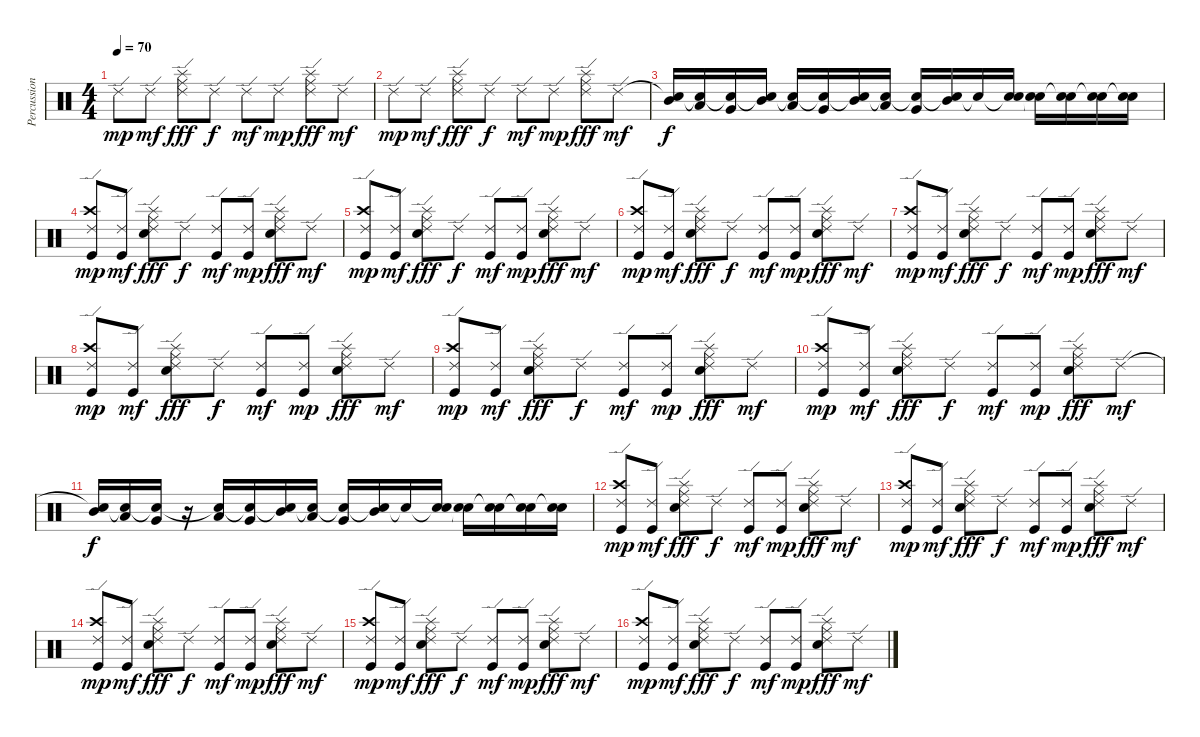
\track ("Percussions" "Percussion") {instrument percussion}
\staff {score}
\articulation defaults
\ts (4 4)
\tempo 70
\clef neutral
\ks c "Ride (edge) 2".8{dy mp} "Ride (edge) 2".8{dy mf}
("Ride (middle)" "Ride (edge) 2" "Splash (hit)").8{dy fff} "Ride (edge) 2".8{dy f} "Ride (edge) 2".8{dy mf} "Ride (edge) 2".8{dy mp} ("Ride (middle)" "Ride (edge) 2" "Splash (hit)").8{dy fff} "Ride (edge) 2".8{dy mf} |
"Ride (edge) 2".8{dy mp} "Ride (edge) 2".8{dy mf} ("Ride (middle)" "Ride (edge) 2" "Splash (hit)").8{dy fff} "Ride (edge) 2".8{dy f} "Ride (edge) 2".8{dy mf} "Ride (edge) 2".8{dy mp} ("Ride (middle)" "Ride (edge) 2" "Splash (hit)").8{dy fff} "Ride (edge) 2".8{dy mf} |
("Snare (hit)"{t} "Mid Tom (hit)").16{dy f} ("Snare (hit)"{t} "Low Tom (hit)").16 ("Snare (hit)"{t} "Very Low Tom (hit)").16 ("Snare (hit)"{t} "Mid Tom (hit)").16 ("Snare (hit)"{t} "Low Tom (hit)").16 ("Snare (hit)"{t} "Very Low Tom (hit)").16 ("Snare (hit)"{t} "Mid Tom (hit)").16 ("Snare (hit)"{t} "Low Tom (hit)").16 ("Snare (hit)"{t} "Very Low Tom (hit)").16 ("Snare (hit)"{t} "Mid Tom (hit)").16 "Snare (hit)"{t}.16 ("Snare (hit)"{t} "Electric Snare (hit)").16 ("Snare (hit)"{t} "Electric Snare (hit)").16 ("Snare (hit)"{t} "Electric Snare (hit)").16 ("Snare (hit)"{t} "Electric Snare (hit)").16 ("Snare (hit)"{t} "Electric Snare (hit)").16 |
("Ride (edge) 2" "Crash high (hit)" "Kick (hit)").8{dy mp} ("Ride (edge) 2" "Kick (hit)").8{dy mf} ("Ride (middle)" "Ride (edge) 2" "Splash (hit)" "Electric Snare (hit)").8{dy fff} "Ride (edge) 2".8{dy f} ("Ride (edge) 2" "Kick (hit)").8{dy mf} ("Ride (edge) 2" "Kick (hit)").8{dy mp} ("Ride (middle)" "Ride (edge) 2" "Splash (hit)" "Electric Snare (hit)").8{dy fff} "Ride (edge) 2".8{dy mf} |
("Ride (edge) 2" "Crash high (hit)" "Kick (hit)").8{dy mp} ("Ride (edge) 2" "Kick (hit)").8{dy mf} ("Ride (middle)" "Ride (edge) 2" "Splash (hit)" "Electric Snare (hit)").8{dy fff} "Ride (edge) 2".8{dy f} ("Ride (edge) 2" "Kick (hit)").8{dy mf} ("Ride (edge) 2" "Kick (hit)").8{dy mp} ("Ride (middle)" "Ride (edge) 2" "Splash (hit)" "Electric Snare (hit)").8{dy fff} "Ride (edge) 2".8{dy mf} |
("Ride (edge) 2" "Crash high (hit)" "Kick (hit)").8{dy mp} ("Ride (edge) 2" "Kick (hit)").8{dy mf} ("Ride (middle)" "Ride (edge) 2" "Splash (hit)" "Electric Snare (hit)").8{dy fff} "Ride (edge) 2".8{dy f} ("Ride (edge) 2" "Kick (hit)").8{dy mf} ("Ride (edge) 2" "Kick (hit)").8{dy mp} ("Ride (middle)" "Ride (edge) 2" "Splash (hit)" "Electric Snare (hit)").8{dy fff} "Ride (edge) 2".8{dy mf} |
("Ride (edge) 2" "Crash high (hit)" "Kick (hit)").8{dy mp} ("Ride (edge) 2" "Kick (hit)").8{dy mf} ("Ride (middle)" "Ride (edge) 2" "Splash (hit)" "Electric Snare (hit)").8{dy fff} "Ride (edge) 2".8{dy f} ("Ride (edge) 2" "Kick (hit)").8{dy mf} ("Ride (edge) 2" "Kick (hit)").8{dy mp} ("Ride (middle)" "Ride (edge) 2" "Splash (hit)" "Electric Snare (hit)").8{dy fff} "Ride (edge) 2".8{dy mf} |
("Ride (edge) 2" "Crash high (hit)" "Kick (hit)").8{dy mp} ("Ride (edge) 2" "Kick (hit)").8{dy mf} ("Ride (middle)" "Ride (edge) 2" "Splash (hit)" "Electric Snare (hit)").8{dy fff} "Ride (edge) 2".8{dy f} ("Ride (edge) 2" "Kick (hit)").8{dy mf} ("Ride (edge) 2" "Kick (hit)").8{dy mp} ("Ride (middle)" "Ride (edge) 2" "Splash (hit)" "Electric Snare (hit)").8{dy fff} "Ride (edge) 2".8{dy mf} |
("Ride (edge) 2" "Crash high (hit)" "Kick (hit)").8{dy mp} ("Ride (edge) 2" "Kick (hit)").8{dy mf} ("Ride (middle)" "Ride (edge) 2" "Splash (hit)" "Electric Snare (hit)").8{dy fff} "Ride (edge) 2".8{dy f} ("Ride (edge) 2" "Kick (hit)").8{dy mf} ("Ride (edge) 2" "Kick (hit)").8{dy mp} ("Ride (middle)" "Ride (edge) 2" "Splash (hit)" "Electric Snare (hit)").8{dy fff} "Ride (edge) 2".8{dy mf} |
("Ride (edge) 2" "Crash high (hit)" "Kick (hit)").8{dy mp} ("Ride (edge) 2" "Kick (hit)").8{dy mf} ("Ride (middle)" "Ride (edge) 2" "Splash (hit)" "Electric Snare (hit)").8{dy fff} "Ride (edge) 2".8{dy f} ("Ride (edge) 2" "Kick (hit)").8{dy mf} ("Ride (edge) 2" "Kick (hit)").8{dy mp} ("Ride (middle)" "Ride (edge) 2" "Splash (hit)" "Electric Snare (hit)").8{dy fff} "Ride (edge) 2".8{dy mf} |
("Snare (hit)"{t} "Mid Tom (hit)").16{dy f} ("Snare (hit)"{t} "Low Tom (hit)").16 ("Snare (hit)"{t} "Very Low Tom (hit)").16 r.16 ("Snare (hit)"{t} "Low Tom (hit)").16 ("Snare (hit)"{t} "Very Low Tom (hit)").16 ("Snare (hit)"{t} "Mid Tom (hit)").16 ("Snare (hit)"{t} "Low Tom (hit)").16 ("Snare (hit)"{t} "Very Low Tom (hit)").16 ("Snare (hit)"{t} "Mid Tom (hit)").16 "Snare (hit)"{t}.16 ("Snare (hit)"{t} "Electric Snare (hit)").16 ("Snare (hit)"{t} "Electric Snare (hit)").16 ("Snare (hit)"{t} "Electric Snare (hit)").16 ("Snare (hit)"{t} "Electric Snare (hit)").16 ("Snare (hit)"{t} "Electric Snare (hit)").16 |
("Ride (edge) 2" "Crash high (hit)" "Kick (hit)").8{dy mp} ("Ride (edge) 2" "Kick (hit)").8{dy mf} ("Ride (middle)" "Ride (edge) 2" "Splash (hit)" "Electric Snare (hit)").8{dy fff} "Ride (edge) 2".8{dy f} ("Ride (edge) 2" "Kick (hit)").8{dy mf} ("Ride (edge) 2" "Kick (hit)").8{dy mp} ("Ride (middle)" "Ride (edge) 2" "Splash (hit)" "Electric Snare (hit)").8{dy fff} "Ride (edge) 2".8{dy mf} |
("Ride (edge) 2" "Crash high (hit)" "Kick (hit)").8{dy mp} ("Ride (edge) 2" "Kick (hit)").8{dy mf} ("Ride (middle)" "Ride (edge) 2" "Splash (hit)" "Electric Snare (hit)").8{dy fff} "Ride (edge) 2".8{dy f} ("Ride (edge) 2" "Kick (hit)").8{dy mf} ("Ride (edge) 2" "Kick (hit)").8{dy mp} ("Ride (middle)" "Ride (edge) 2" "Splash (hit)" "Electric Snare (hit)").8{dy fff} "Ride (edge) 2".8{dy mf} |
("Ride (edge) 2" "Crash high (hit)" "Kick (hit)").8{dy mp} ("Ride (edge) 2" "Kick (hit)").8{dy mf} ("Ride (middle)" "Ride (edge) 2" "Splash (hit)" "Electric Snare (hit)").8{dy fff} "Ride (edge) 2".8{dy f} ("Ride (edge) 2" "Kick (hit)").8{dy mf} ("Ride (edge) 2" "Kick (hit)").8{dy mp} ("Ride (middle)" "Ride (edge) 2" "Splash (hit)" "Electric Snare (hit)").8{dy fff} "Ride (edge) 2".8{dy mf} |
("Ride (edge) 2" "Crash high (hit)" "Kick (hit)").8{dy mp} ("Ride (edge) 2" "Kick (hit)").8{dy mf} ("Ride (middle)" "Ride (edge) 2" "Splash (hit)" "Electric Snare (hit)").8{dy fff} "Ride (edge) 2".8{dy f} ("Ride (edge) 2" "Kick (hit)").8{dy mf} ("Ride (edge) 2" "Kick (hit)").8{dy mp} ("Ride (middle)" "Ride (edge) 2" "Splash (hit)" "Electric Snare (hit)").8{dy fff} "Ride (edge) 2".8{dy mf} |
("Ride (edge) 2" "Crash high (hit)" "Kick (hit)").8{dy mp} ("Ride (edge) 2" "Kick (hit)").8{dy mf} ("Ride (middle)" "Ride (edge) 2" "Splash (hit)" "Electric Snare (hit)").8{dy fff} "Ride (edge) 2".8{dy f} ("Ride (edge) 2" "Kick (hit)").8{dy mf} ("Ride (edge) 2" "Kick (hit)").8{dy mp} ("Ride (middle)" "Ride (edge) 2" "Splash (hit)" "Electric Snare (hit)").8{dy fff} "Ride (edge) 2".8{dy mf}
